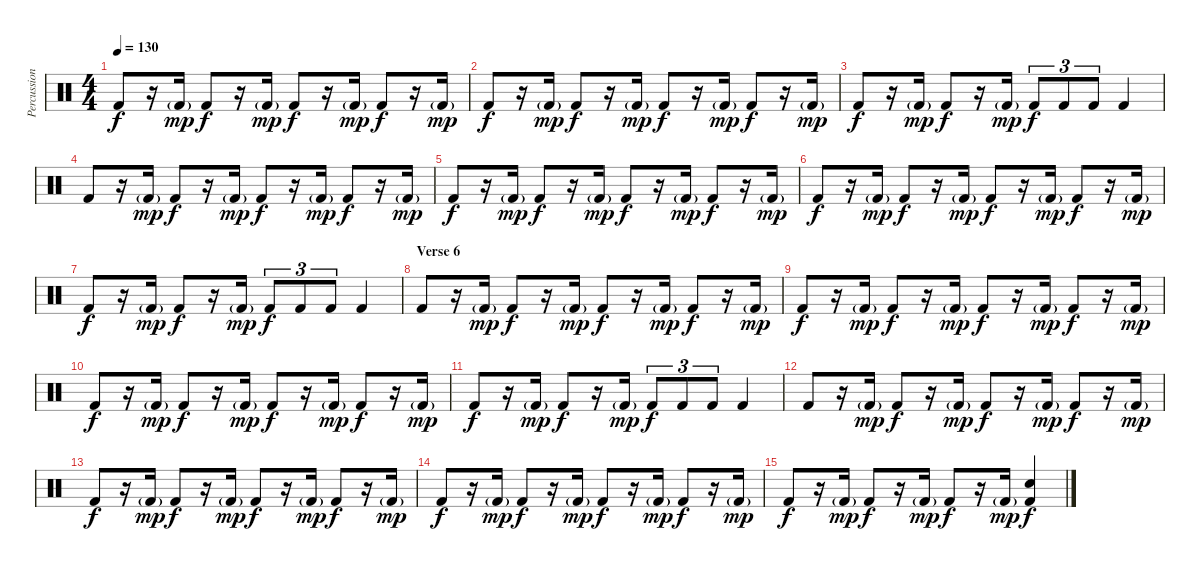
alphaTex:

\track ("Percussion - Rhythm" "Percussion") {instrument percussion}
\staff {score}
\articulation defaults
\ts (4 4)
\tempo 130
\clef neutral
\ks c "Kick (hit) 2".8{dy f}
r.16 "Kick (hit) 2"{g}.16{dy mp} "Kick (hit) 2".8{dy f} r.16 "Kick (hit) 2"{g}.16{dy mp} "Kick (hit) 2".8{dy f} r.16 "Kick (hit) 2"{g}.16{dy mp} "Kick (hit) 2".8{dy f} r.16 "Kick (hit) 2"{g}.16{dy mp} |
"Kick (hit) 2".8{dy f} r.16 "Kick (hit) 2"{g}.16{dy mp} "Kick (hit) 2".8{dy f} r.16 "Kick (hit) 2"{g}.16{dy mp} "Kick (hit) 2".8{dy f} r.16 "Kick (hit) 2"{g}.16{dy mp} "Kick (hit) 2".8{dy f} r.16 "Kick (hit) 2"{g}.16{dy mp} |
"Kick (hit) 2".8{dy f} r.16 "Kick (hit) 2"{g}.16{dy mp} "Kick (hit) 2".8{dy f} r.16 "Kick (hit) 2"{g}.16{dy mp} "Kick (hit) 2".8{tu (3 2) dy f} "Kick (hit) 2".8{tu (3 2)} "Kick (hit) 2".8{tu (3 2)} "Kick (hit) 2".4 |
"Kick (hit) 2".8 r.16 "Kick (hit) 2"{g}.16{dy mp} "Kick (hit) 2".8{dy f} r.16 "Kick (hit) 2"{g}.16{dy mp} "Kick (hit) 2".8{dy f} r.16 "Kick (hit) 2"{g}.16{dy mp} "Kick (hit) 2".8{dy f} r.16 "Kick (hit) 2"{g}.16{dy mp} |
"Kick (hit) 2".8{dy f} r.16 "Kick (hit) 2"{g}.16{dy mp} "Kick (hit) 2".8{dy f} r.16 "Kick (hit) 2"{g}.16{dy mp} "Kick (hit) 2".8{dy f} r.16 "Kick (hit) 2"{g}.16{dy mp} "Kick (hit) 2".8{dy f} r.16 "Kick (hit) 2"{g}.16{dy mp} |
"Kick (hit) 2".8{dy f} r.16 "Kick (hit) 2"{g}.16{dy mp} "Kick (hit) 2".8{dy f} r.16 "Kick (hit) 2"{g}.16{dy mp} "Kick (hit) 2".8{dy f} r.16 "Kick (hit) 2"{g}.16{dy mp} "Kick (hit) 2".8{dy f} r.16 "Kick (hit) 2"{g}.16{dy mp} |
"Kick (hit) 2".8{dy f} r.16 "Kick (hit) 2"{g}.16{dy mp} "Kick (hit) 2".8{dy f} r.16 "Kick (hit) 2"{g}.16{dy mp} "Kick (hit) 2".8{tu (3 2) dy f} "Kick (hit) 2".8{tu (3 2)} "Kick (hit) 2".8{tu (3 2)} "Kick (hit) 2".4 |
\section ("" "Verse 6")
"Kick (hit) 2".8 r.16 "Kick (hit) 2"{g}.16{dy mp} "Kick (hit) 2".8{dy f} r.16 "Kick (hit) 2"{g}.16{dy mp} "Kick (hit) 2".8{dy f} r.16 "Kick (hit) 2"{g}.16{dy mp} "Kick (hit) 2".8{dy f} r.16 "Kick (hit) 2"{g}.16{dy mp} |
"Kick (hit) 2".8{dy f} r.16 "Kick (hit) 2"{g}.16{dy mp} "Kick (hit) 2".8{dy f} r.16 "Kick (hit) 2"{g}.16{dy mp} "Kick (hit) 2".8{dy f} r.16 "Kick (hit) 2"{g}.16{dy mp} "Kick (hit) 2".8{dy f} r.16 "Kick (hit) 2"{g}.16{dy mp} |
"Kick (hit) 2".8{dy f} r.16 "Kick (hit) 2"{g}.16{dy mp} "Kick (hit) 2".8{dy f} r.16 "Kick (hit) 2"{g}.16{dy mp} "Kick (hit) 2".8{dy f} r.16 "Kick (hit) 2"{g}.16{dy mp} "Kick (hit) 2".8{dy f} r.16 "Kick (hit) 2"{g}.16{dy mp} |
"Kick (hit) 2".8{dy f} r.16 "Kick (hit) 2"{g}.16{dy mp} "Kick (hit) 2".8{dy f} r.16 "Kick (hit) 2"{g}.16{dy mp} "Kick (hit) 2".8{tu (3 2) dy f} "Kick (hit) 2".8{tu (3 2)} "Kick (hit) 2".8{tu (3 2)} "Kick (hit) 2".4 |
"Kick (hit) 2".8 r.16 "Kick (hit) 2"{g}.16{dy mp} "Kick (hit) 2".8{dy f} r.16 "Kick (hit) 2"{g}.16{dy mp} "Kick (hit) 2".8{dy f} r.16 "Kick (hit) 2"{g}.16{dy mp} "Kick (hit) 2".8{dy f} r.16 "Kick (hit) 2"{g}.16{dy mp} |
"Kick (hit) 2".8{dy f} r.16 "Kick (hit) 2"{g}.16{dy mp} "Kick (hit) 2".8{dy f} r.16 "Kick (hit) 2"{g}.16{dy mp} "Kick (hit) 2".8{dy f} r.16 "Kick (hit) 2"{g}.16{dy mp} "Kick (hit) 2".8{dy f} r.16 "Kick (hit) 2"{g}.16{dy mp} |
"Kick (hit) 2".8{dy f} r.16 "Kick (hit) 2"{g}.16{dy mp} "Kick (hit) 2".8{dy f} r.16 "Kick (hit) 2"{g}.16{dy mp} "Kick (hit) 2".8{dy f} r.16 "Kick (hit) 2"{g}.16{dy mp} "Kick (hit) 2".8{dy f} r.16 "Kick (hit) 2"{g}.16{dy mp} |
"Kick (hit) 2".8{dy f} r.16 "Kick (hit) 2"{g}.16{dy mp} "Kick (hit) 2".8{dy f} r.16 "Kick (hit) 2"{g}.16{dy mp} "Kick (hit) 2".8{dy f} r.16 "Kick (hit) 2"{g}.16{dy mp} ("Snare (hit) 2" "Kick (hit) 2").4{dy f}
